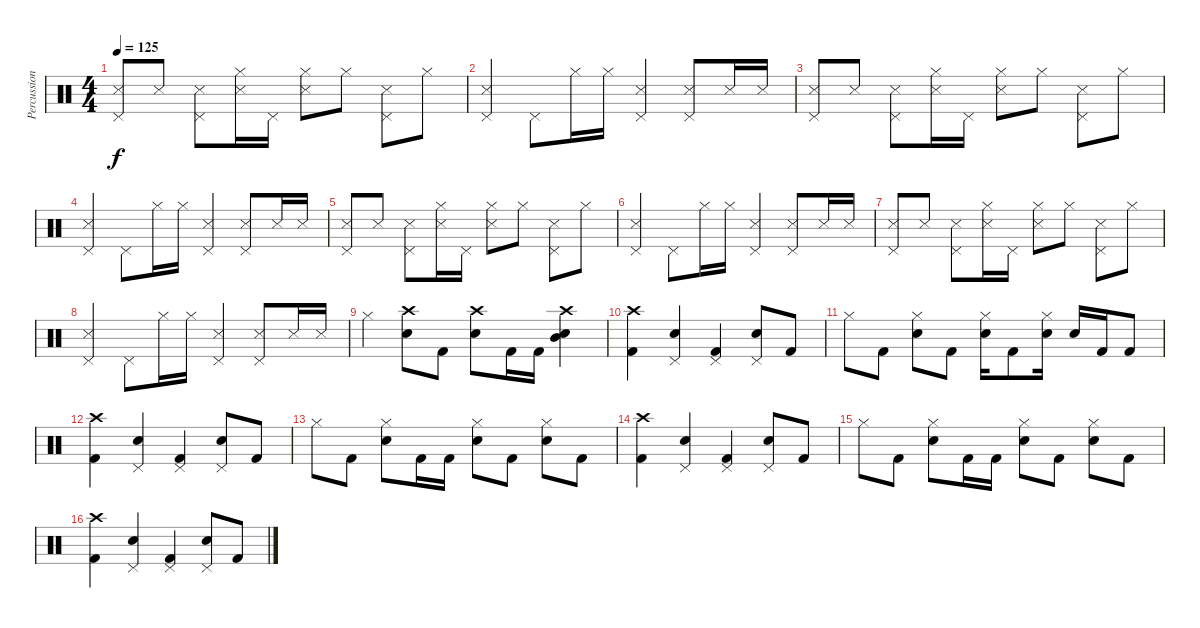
\track ("Percussioni" "Percussion") {instrument percussion}
\staff {score}
\articulation defaults
\ts (4 4)
\tempo 125
\clef neutral
\ks c
("Pedal Hi-Hat (hit)" "Snare (side stick) 3").8{dy f} "Snare (side stick) 3".8 ("Pedal Hi-Hat (hit)" "Snare (side stick) 3").8 ("Hi-Hat (closed)" "Snare (side stick) 3").16 "Pedal Hi-Hat (hit)".16 ("Hi-Hat (closed)" "Snare (side stick) 3").8 "Hi-Hat (closed)".8 ("Pedal Hi-Hat (hit)" "Snare (side stick) 3").8 "Hi-Hat (closed)".8 |
("Pedal Hi-Hat (hit)" "Snare (side stick) 3").4 "Pedal Hi-Hat (hit)".8 "Hi-Hat (closed)".16 "Hi-Hat (closed)".16 ("Pedal Hi-Hat (hit)" "Snare (side stick) 3").4 ("Pedal Hi-Hat (hit)" "Snare (side stick) 3").8 "Snare (side stick) 3".16 "Snare (side stick) 3".16 |
("Pedal Hi-Hat (hit)" "Snare (side stick) 3").8 "Snare (side stick) 3".8 ("Pedal Hi-Hat (hit)" "Snare (side stick) 3").8 ("Hi-Hat (closed)" "Snare (side stick) 3").16 "Pedal Hi-Hat (hit)".16 ("Hi-Hat (closed)" "Snare (side stick) 3").8 "Hi-Hat (closed)".8 ("Pedal Hi-Hat (hit)" "Snare (side stick) 3").8 "Hi-Hat (closed)".8 |
("Pedal Hi-Hat (hit)" "Snare (side stick) 3").4 "Pedal Hi-Hat (hit)".8 "Hi-Hat (closed)".16 "Hi-Hat (closed)".16 ("Pedal Hi-Hat (hit)" "Snare (side stick) 3").4 ("Pedal Hi-Hat (hit)" "Snare (side stick) 3").8 "Snare (side stick) 3".16 "Snare (side stick) 3".16 |
("Pedal Hi-Hat (hit)" "Snare (side stick) 3").8 "Snare (side stick) 3".8 ("Pedal Hi-Hat (hit)" "Snare (side stick) 3").8 ("Hi-Hat (closed)" "Snare (side stick) 3").16 "Pedal Hi-Hat (hit)".16 ("Hi-Hat (closed)" "Snare (side stick) 3").8 "Hi-Hat (closed)".8 ("Pedal Hi-Hat (hit)" "Snare (side stick) 3").8 "Hi-Hat (closed)".8 |
("Pedal Hi-Hat (hit)" "Snare (side stick) 3").4 "Pedal Hi-Hat (hit)".8 "Hi-Hat (closed)".16 "Hi-Hat (closed)".16 ("Pedal Hi-Hat (hit)" "Snare (side stick) 3").4 ("Pedal Hi-Hat (hit)" "Snare (side stick) 3").8 "Snare (side stick) 3".16 "Snare (side stick) 3".16 |
("Pedal Hi-Hat (hit)" "Snare (side stick) 3").8 "Snare (side stick) 3".8 ("Pedal Hi-Hat (hit)" "Snare (side stick) 3").8 ("Hi-Hat (closed)" "Snare (side stick) 3").16 "Pedal Hi-Hat (hit)".16 ("Hi-Hat (closed)" "Snare (side stick) 3").8 "Hi-Hat (closed)".8 ("Pedal Hi-Hat (hit)" "Snare (side stick) 3").8 "Hi-Hat (closed)".8 |
("Pedal Hi-Hat (hit)" "Snare (side stick) 3").4 "Pedal Hi-Hat (hit)".8 "Hi-Hat (closed)".16 "Hi-Hat (closed)".16 ("Pedal Hi-Hat (hit)" "Snare (side stick) 3").4 ("Pedal Hi-Hat (hit)" "Snare (side stick) 3").8 "Snare (side stick) 3".16 "Snare (side stick) 3".16 |
"Hi-Hat (closed)".4 ("Crash high (hit)" "Snare (hit) 2").8 "Kick (hit) 2".8 ("Crash high (hit)" "Snare (hit) 2").8 "Kick (hit) 2".16 "Kick (hit) 2".16 ("Crash high (hit)" "Mid Tom (hit)" "Snare (hit) 2").4 |
("Crash high (hit)" "Kick (hit) 2").4 ("Pedal Hi-Hat (hit)" "Snare (hit) 2").4 ("Pedal Hi-Hat (hit)" "Kick (hit) 2").4 ("Pedal Hi-Hat (hit)" "Snare (hit) 2").8 "Kick (hit) 2".8 |
"Hi-Hat (closed)".8 "Kick (hit) 2".8 ("Hi-Hat (closed)" "Snare (hit) 2").8 "Kick (hit) 2".8 ("Hi-Hat (closed)" "Snare (hit) 2").16 "Kick (hit) 2".8 ("Hi-Hat (closed)" "Snare (hit) 2").16 "Snare (hit) 2".16 "Kick (hit) 2".16 "Kick (hit) 2".8 |
("Crash high (hit)" "Kick (hit) 2").4 ("Pedal Hi-Hat (hit)" "Snare (hit) 2").4 ("Pedal Hi-Hat (hit)" "Kick (hit) 2").4 ("Pedal Hi-Hat (hit)" "Snare (hit) 2").8 "Kick (hit) 2".8 |
"Hi-Hat (closed)".8 "Kick (hit) 2".8 ("Hi-Hat (closed)" "Snare (hit) 2").8 "Kick (hit) 2".16 "Kick (hit) 2".16 ("Hi-Hat (closed)" "Snare (hit) 2").8 "Kick (hit) 2".8 ("Hi-Hat (closed)" "Snare (hit) 2").8 "Kick (hit) 2".8 |
("Crash high (hit)" "Kick (hit) 2").4 ("Pedal Hi-Hat (hit)" "Snare (hit) 2").4 ("Pedal Hi-Hat (hit)" "Kick (hit) 2").4 ("Pedal Hi-Hat (hit)" "Snare (hit) 2").8 "Kick (hit) 2".8 |
"Hi-Hat (closed)".8 "Kick (hit) 2".8 ("Hi-Hat (closed)" "Snare (hit) 2").8 "Kick (hit) 2".16 "Kick (hit) 2".16 ("Hi-Hat (closed)" "Snare (hit) 2").8 "Kick (hit) 2".8 ("Hi-Hat (closed)" "Snare (hit) 2").8 "Kick (hit) 2".8 |
("Crash high (hit)" "Kick (hit) 2").4 ("Pedal Hi-Hat (hit)" "Snare (hit) 2").4 ("Pedal Hi-Hat (hit)" "Kick (hit) 2").4 ("Pedal Hi-Hat (hit)" "Snare (hit) 2").8 "Kick (hit) 2".8
